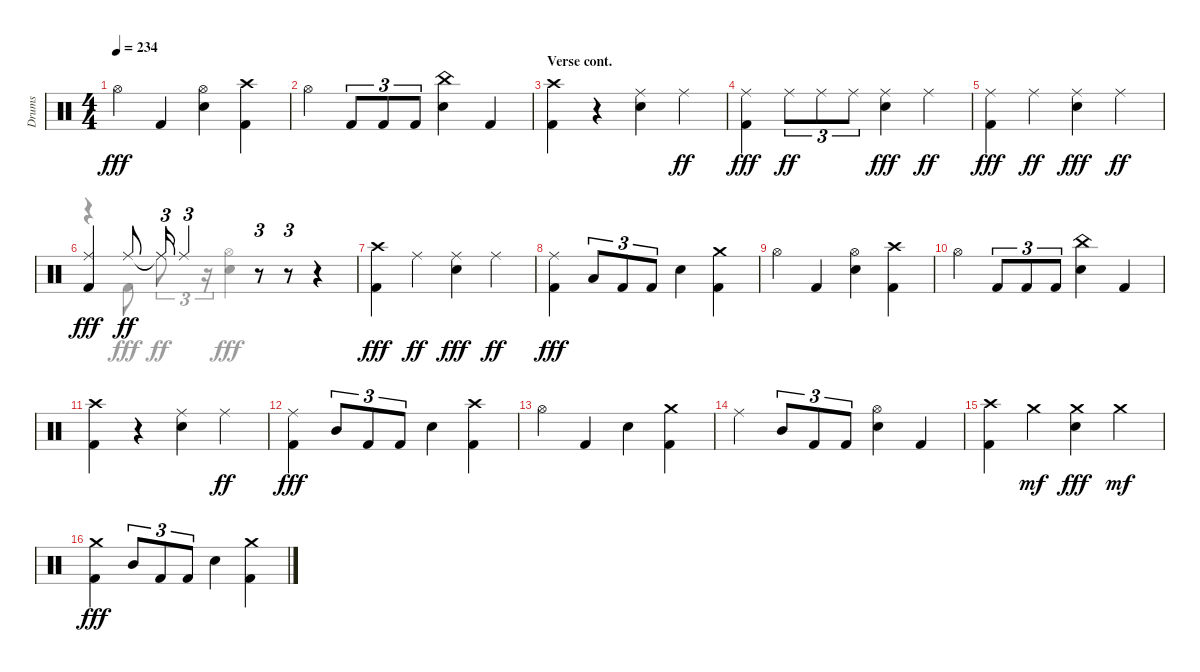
\track ("Drums" "Drums") {instrument percussion}
\staff {score}
\articulation defaults
\voice
\ts (4 4)
\tempo 234
\clef neutral
\ks aminor "Hi-Hat (open)".4{dy fff} "Kick (hit) 2".4
("Snare (hit) 2" "Hi-Hat (open)").4 ("Kick (hit) 2" "Crash high (hit)").4 |
"Hi-Hat (open)".4 "Kick (hit) 2".8{tu (3 2)} "Kick (hit) 2".8{tu (3 2)} "Kick (hit) 2".8{tu (3 2)} ("Snare (hit) 2" "China (hit)").4 "Kick (hit) 2".4 |
\section ("" "Verse cont.")
("Crash high (hit)" "Kick (hit) 2").4 r.4 ("Ride (middle)" "Snare (hit) 2").4 "Ride (middle)".4{dy ff} |
("Ride (middle)" "Kick (hit) 2").4{dy fff} "Ride (middle)".8{tu (3 2) dy ff} "Ride (middle)".8{tu (3 2)} "Ride (middle)".8{tu (3 2)} ("Ride (middle)" "Snare (hit) 2").4{dy fff} "Ride (middle)".4{dy ff} |
("Kick (hit) 2" "Ride (middle)").4{dy fff} "Ride (middle)".4{dy ff} ("Ride (middle)" "Snare (hit) 2").4{dy fff} "Ride (middle)".4{dy ff} |
("Kick (hit) 2" "Ride (middle)").4{dy fff} "Ride (middle)".8{dy ff} "Ride (middle)"{t}.16{tu (3 2)} "Ride (middle)".4{tu (3 2)} r.8{tu (3 2)} r.8{tu (3 2)} r.4 |
("Crash high (hit)" "Kick (hit) 2").4{dy fff} "Ride (middle)".4{dy ff} ("Ride (middle)" "Snare (hit) 2").4{dy fff} "Ride (middle)".4{dy ff} |
("Ride (middle)" "Kick (hit) 2").4{dy fff} "Low Tom (hit)".8{tu (3 2)} "Kick (hit) 2".8{tu (3 2)} "Kick (hit) 2".8{tu (3 2)} "Snare (hit) 2".4 ("Crash medium (hit)" "Kick (hit) 2").4 |
"Hi-Hat (open)".4 "Kick (hit) 2".4 ("Snare (hit) 2" "Hi-Hat (open)").4 ("Kick (hit) 2" "Crash high (hit)").4 |
"Hi-Hat (open)".4 "Kick (hit) 2".8{tu (3 2)} "Kick (hit) 2".8{tu (3 2)} "Kick (hit) 2".8{tu (3 2)} ("Snare (hit) 2" "China (hit)").4 "Kick (hit) 2".4 |
("Crash high (hit)" "Kick (hit) 2").4 r.4 ("Ride (middle)" "Snare (hit) 2").4 "Ride (middle)".4{dy ff} |
("Ride (middle)" "Kick (hit) 2").4{dy fff} "Mid Tom (hit)".8{tu (3 2)} "Kick (hit) 2".8{tu (3 2)} "Kick (hit) 2".8{tu (3 2)} "Snare (hit) 2".4 ("Kick (hit) 2" "Crash high (hit)").4 |
"Hi-Hat (open)".4 "Kick (hit) 2".4 "Snare (hit) 2".4 ("Crash medium (hit)" "Kick (hit) 2").4 |
"Ride (middle)".4 "Mid Tom (hit)".8{tu (3 2)} "Kick (hit) 2".8{tu (3 2)} "Kick (hit) 2".8{tu (3 2)} ("Snare (hit) 2" "Hi-Hat (open)").4 "Kick (hit) 2".4 |
("Kick (hit) 2" "Crash high (hit)").4 "Crash medium (hit)".4{dy mf} ("Crash medium (hit)" "Snare (hit) 2").4{dy fff} "Crash medium (hit)".4{dy mf} |
("Kick (hit) 2" "Crash medium (hit)").4{dy fff} "Mid Tom (hit)".8{tu (3 2)} "Kick (hit) 2".8{tu (3 2)} "Kick (hit) 2".8{tu (3 2)} "Snare (hit) 2".4 ("Kick (hit) 2" "Crash medium (hit)").4
\voice
\clef neutral
\ottava regular
\simile none
\ks aminor
|
|
|
|
|
r.4 "Kick (hit) 2".8 "Ride (middle)".8{tu (3 2) dy ff} r.16{tu (3 2)} ("Hi-Hat (open)" "Snare (hit) 2").4{dy fff} |
|
|
|
|
|
|
|
|
|
